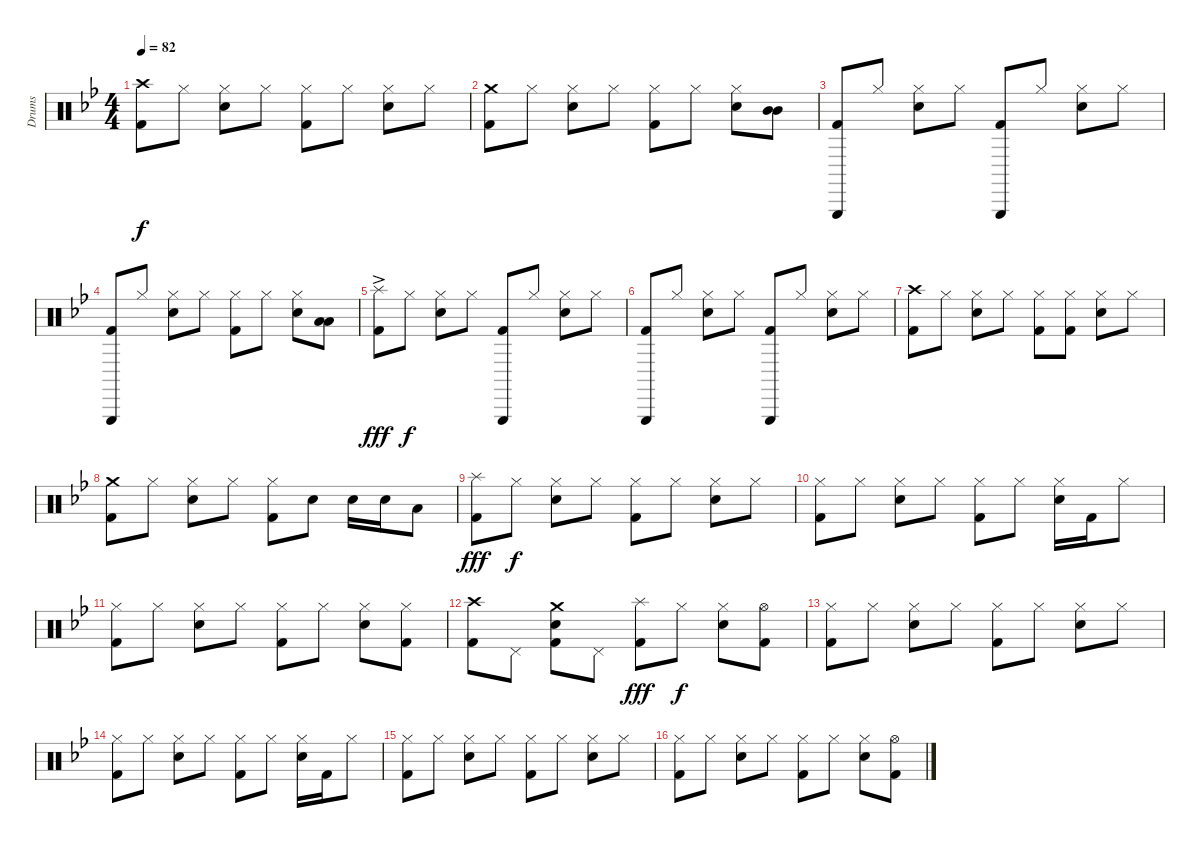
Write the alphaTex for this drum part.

\track ("Drums" "Drums") {instrument percussion}
\staff {score}
\articulation defaults
\ts (4 4)
\tempo 82
\clef neutral
\ks bb
("Crash high (hit)" "Kick (hit) 2").8{dy f} "Hi-Hat (closed)".8 ("Hi-Hat (closed)" "Snare (hit) 2").8 "Hi-Hat (closed)".8 ("Hi-Hat (closed)" "Kick (hit) 2").8 "Hi-Hat (closed)".8 ("Hi-Hat (closed)" "Snare (hit) 2").8 "Hi-Hat (closed)".8 |
("Crash medium (hit)" "Kick (hit) 2").8 "Hi-Hat (closed)".8 ("Hi-Hat (closed)" "Snare (hit) 2").8 "Hi-Hat (closed)".8 ("Hi-Hat (closed)" "Kick (hit) 2").8 "Hi-Hat (closed)".8 ("Hi-Hat (closed)" "Snare (hit) 2").8 ("Mid Tom (hit)" "Mid Tom (hit)").8 |
("Triangle (hit)" "Kick (hit) 2").8 "Hi-Hat (closed)".8 ("Hi-Hat (closed)" "Snare (hit) 2").8 "Hi-Hat (closed)".8 ("Triangle (hit)" "Kick (hit) 2").8 "Hi-Hat (closed)".8 ("Hi-Hat (closed)" "Snare (hit) 2").8 "Hi-Hat (closed)".8 |
("Triangle (hit)" "Kick (hit) 2").8 "Hi-Hat (closed)".8 ("Hi-Hat (closed)" "Snare (hit) 2").8 "Hi-Hat (closed)".8 ("Hi-Hat (closed)" "Kick (hit) 2").8 "Hi-Hat (closed)".8 ("Hi-Hat (closed)" "Snare (hit) 2").8 ("Low Tom (hit)" "Low Tom (hit)").8 |
("Splash (hit)"{ac} "Kick (hit) 2").8{dy fff} "Hi-Hat (closed)".8{dy f} ("Hi-Hat (closed)" "Snare (hit) 2").8 "Hi-Hat (closed)".8 ("Triangle (hit)" "Kick (hit) 2").8 "Hi-Hat (closed)".8 ("Hi-Hat (closed)" "Snare (hit) 2").8 "Hi-Hat (closed)".8 |
("Triangle (hit)" "Kick (hit) 2").8 "Hi-Hat (closed)".8 ("Hi-Hat (closed)" "Snare (hit) 2").8 "Hi-Hat (closed)".8 ("Triangle (hit)" "Kick (hit) 2").8 "Hi-Hat (closed)".8 ("Hi-Hat (closed)" "Snare (hit) 2").8 "Hi-Hat (closed)".8 |
("Crash high (hit)" "Kick (hit) 2").8 "Hi-Hat (closed)".8 ("Hi-Hat (closed)" "Snare (hit) 2").8 "Hi-Hat (closed)".8 ("Hi-Hat (closed)" "Kick (hit) 2").8 ("Hi-Hat (closed)" "Kick (hit) 2").8 ("Hi-Hat (closed)" "Snare (hit) 2").8 "Hi-Hat (closed)".8 |
("Crash medium (hit)" "Kick (hit) 2").8 "Hi-Hat (closed)".8 ("Hi-Hat (closed)" "Snare (hit) 2").8 "Hi-Hat (closed)".8 ("Hi-Hat (closed)" "Kick (hit) 2").8 "Snare (hit) 2".8 "Snare (hit) 2".16 "Snare (hit) 2".16 "Low Tom (hit)".8 |
("Splash (hit)" "Kick (hit) 2").8{dy fff} "Hi-Hat (closed)".8{dy f} ("Hi-Hat (closed)" "Snare (hit) 2").8 "Hi-Hat (closed)".8 ("Hi-Hat (closed)" "Kick (hit) 2").8 "Hi-Hat (closed)".8 ("Hi-Hat (closed)" "Snare (hit) 2").8 "Hi-Hat (closed)".8 |
("Hi-Hat (closed)" "Kick (hit) 2").8 "Hi-Hat (closed)".8 ("Hi-Hat (closed)" "Snare (hit) 2").8 "Hi-Hat (closed)".8 ("Hi-Hat (closed)" "Kick (hit) 2").8 "Hi-Hat (closed)".8 ("Hi-Hat (closed)" "Snare (hit) 2").16 "Kick (hit) 2".16 "Hi-Hat (closed)".8 |
("Hi-Hat (closed)" "Kick (hit) 2").8 "Hi-Hat (closed)".8 ("Hi-Hat (closed)" "Snare (hit) 2").8 "Hi-Hat (closed)".8 ("Hi-Hat (closed)" "Kick (hit) 2").8 "Hi-Hat (closed)".8 ("Hi-Hat (closed)" "Snare (hit) 2").8 ("Hi-Hat (closed)" "Kick (hit) 2").8 |
("Crash high (hit)" "Kick (hit) 2").8 "Pedal Hi-Hat (hit)".8 ("Crash medium (hit)" "Snare (hit) 2" "Kick (hit) 2").8 "Pedal Hi-Hat (hit)".8 ("Splash (hit)" "Kick (hit) 2").8{dy fff} "Hi-Hat (closed)".8{dy f} ("Hi-Hat (closed)" "Snare (hit) 2").8 ("Hi-Hat (open)" "Kick (hit) 2").8 |
("Hi-Hat (closed)" "Kick (hit) 2").8 "Hi-Hat (closed)".8 ("Hi-Hat (closed)" "Snare (hit) 2").8 "Hi-Hat (closed)".8 ("Hi-Hat (closed)" "Kick (hit) 2").8 "Hi-Hat (closed)".8 ("Hi-Hat (closed)" "Snare (hit) 2").8 "Hi-Hat (closed)".8 |
("Hi-Hat (closed)" "Kick (hit) 2").8 "Hi-Hat (closed)".8 ("Hi-Hat (closed)" "Snare (hit) 2").8 "Hi-Hat (closed)".8 ("Hi-Hat (closed)" "Kick (hit) 2").8 "Hi-Hat (closed)".8 ("Hi-Hat (closed)" "Snare (hit) 2").16 "Kick (hit) 2".16 "Hi-Hat (closed)".8 |
("Hi-Hat (closed)" "Kick (hit) 2").8 "Hi-Hat (closed)".8 ("Hi-Hat (closed)" "Snare (hit) 2").8 "Hi-Hat (closed)".8 ("Hi-Hat (closed)" "Kick (hit) 2").8 "Hi-Hat (closed)".8 ("Hi-Hat (closed)" "Snare (hit) 2").8 "Hi-Hat (closed)".8 |
("Hi-Hat (closed)" "Kick (hit) 2").8 "Hi-Hat (closed)".8 ("Hi-Hat (closed)" "Snare (hit) 2").8 "Hi-Hat (closed)".8 ("Hi-Hat (closed)" "Kick (hit) 2").8 "Hi-Hat (closed)".8 ("Hi-Hat (closed)" "Snare (hit) 2").8 ("Hi-Hat (open)" "Kick (hit) 2").8
